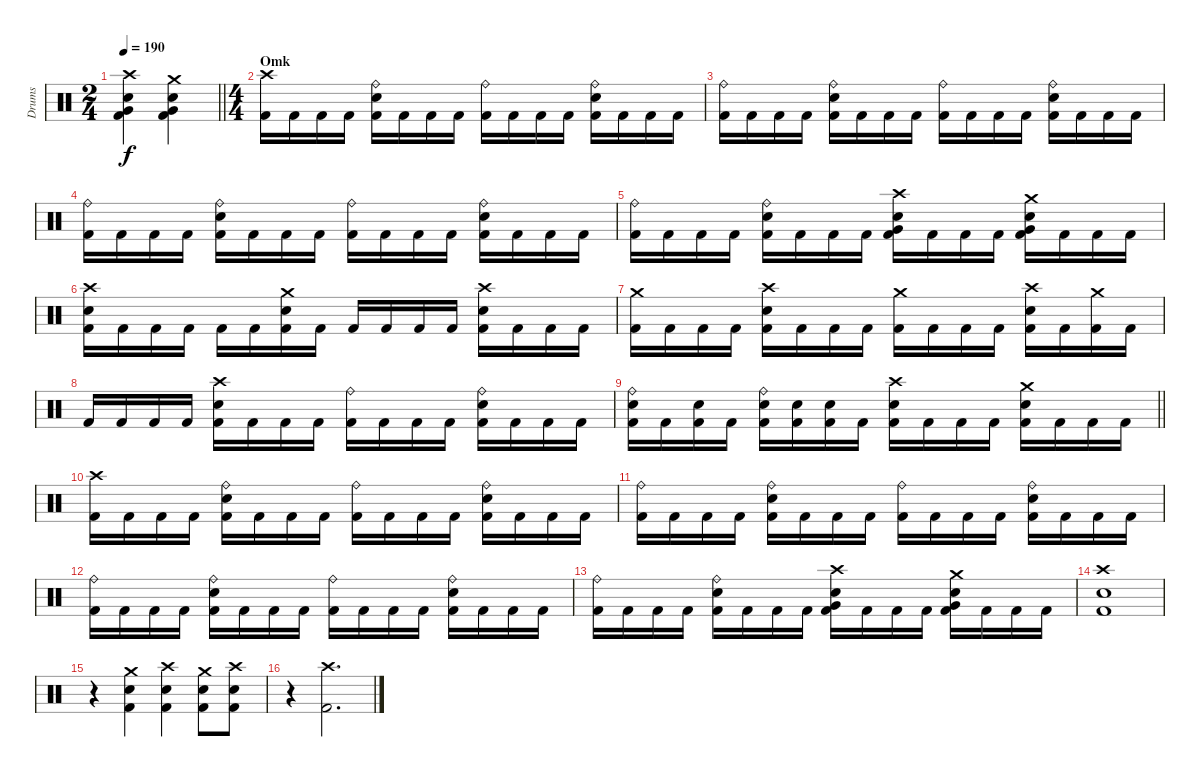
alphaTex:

\track ("Drums" "Drums") {instrument percussion}
\staff {score}
\articulation defaults
\ts (2 4)
\tempo 190
\clef neutral
\barLineRight lightlight
\ks c
("Crash high (hit)" "Very Low Tom (hit)" "Snare (hit) 2" "Kick (hit) 2").4{dy f} ("Crash medium (hit)" "Very Low Tom (hit)" "Snare (hit) 2" "Kick (hit) 2").4 |
\ts (4 4)
\section ("" "Omk")
("Crash high (hit)" "Kick (hit) 2").16 "Kick (hit) 2".16 "Kick (hit) 2".16 "Kick (hit) 2".16 ("Ride (bell)" "Snare (hit) 2" "Kick (hit) 2").16 "Kick (hit) 2".16 "Kick (hit) 2".16 "Kick (hit) 2".16 ("Ride (bell)" "Kick (hit) 2").16 "Kick (hit) 2".16 "Kick (hit) 2".16 "Kick (hit) 2".16 ("Ride (bell)" "Snare (hit) 2" "Kick (hit) 2").16 "Kick (hit) 2".16 "Kick (hit) 2".16 "Kick (hit) 2".16 |
("Ride (bell)" "Kick (hit) 2").16 "Kick (hit) 2".16 "Kick (hit) 2".16 "Kick (hit) 2".16 ("Ride (bell)" "Snare (hit) 2" "Kick (hit) 2").16 "Kick (hit) 2".16 "Kick (hit) 2".16 "Kick (hit) 2".16 ("Ride (bell)" "Kick (hit) 2").16 "Kick (hit) 2".16 "Kick (hit) 2".16 "Kick (hit) 2".16 ("Ride (bell)" "Snare (hit) 2" "Kick (hit) 2").16 "Kick (hit) 2".16 "Kick (hit) 2".16 "Kick (hit) 2".16 |
("Ride (bell)" "Kick (hit) 2").16 "Kick (hit) 2".16 "Kick (hit) 2".16 "Kick (hit) 2".16 ("Ride (bell)" "Snare (hit) 2" "Kick (hit) 2").16 "Kick (hit) 2".16 "Kick (hit) 2".16 "Kick (hit) 2".16 ("Ride (bell)" "Kick (hit) 2").16 "Kick (hit) 2".16 "Kick (hit) 2".16 "Kick (hit) 2".16 ("Ride (bell)" "Snare (hit) 2" "Kick (hit) 2").16 "Kick (hit) 2".16 "Kick (hit) 2".16 "Kick (hit) 2".16 |
("Ride (bell)" "Kick (hit) 2").16 "Kick (hit) 2".16 "Kick (hit) 2".16 "Kick (hit) 2".16 ("Ride (bell)" "Snare (hit) 2" "Kick (hit) 2").16 "Kick (hit) 2".16 "Kick (hit) 2".16 "Kick (hit) 2".16 ("Crash high (hit)" "Very Low Tom (hit)" "Snare (hit) 2" "Kick (hit) 2").16 "Kick (hit) 2".16 "Kick (hit) 2".16 "Kick (hit) 2".16 ("Crash medium (hit)" "Very Low Tom (hit)" "Snare (hit) 2" "Kick (hit) 2").16 "Kick (hit) 2".16 "Kick (hit) 2".16 "Kick (hit) 2".16 |
("Crash high (hit)" "Snare (hit) 2" "Kick (hit) 2").16 "Kick (hit) 2".16 "Kick (hit) 2".16 "Kick (hit) 2".16 "Kick (hit) 2".16 "Kick (hit) 2".16 ("Crash medium (hit)" "Snare (hit) 2" "Kick (hit) 2").16 "Kick (hit) 2".16 "Kick (hit) 2".16 "Kick (hit) 2".16 "Kick (hit) 2".16 "Kick (hit) 2".16 ("Crash high (hit)" "Snare (hit) 2" "Kick (hit) 2").16 "Kick (hit) 2".16 "Kick (hit) 2".16 "Kick (hit) 2".16 |
("Crash medium (hit)" "Kick (hit) 2").16 "Kick (hit) 2".16 "Kick (hit) 2".16 "Kick (hit) 2".16 ("Crash high (hit)" "Snare (hit) 2" "Kick (hit) 2").16 "Kick (hit) 2".16 "Kick (hit) 2".16 "Kick (hit) 2".16 ("Crash medium (hit)" "Kick (hit) 2").16 "Kick (hit) 2".16 "Kick (hit) 2".16 "Kick (hit) 2".16 ("Crash high (hit)" "Snare (hit) 2" "Kick (hit) 2").16 "Kick (hit) 2".16 ("Crash medium (hit)" "Kick (hit) 2").16 "Kick (hit) 2".16 |
"Kick (hit) 2".16 "Kick (hit) 2".16 "Kick (hit) 2".16 "Kick (hit) 2".16 ("Crash high (hit)" "Snare (hit) 2" "Kick (hit) 2").16 "Kick (hit) 2".16 "Kick (hit) 2".16 "Kick (hit) 2".16 ("Ride (bell)" "Kick (hit) 2").16 "Kick (hit) 2".16 "Kick (hit) 2".16 "Kick (hit) 2".16 ("Ride (bell)" "Snare (hit) 2" "Kick (hit) 2").16 "Kick (hit) 2".16 "Kick (hit) 2".16 "Kick (hit) 2".16 |
\barLineRight lightlight
("Ride (bell)" "Snare (hit) 2" "Kick (hit) 2").16 "Kick (hit) 2".16 ("Snare (hit) 2" "Kick (hit) 2").16 "Kick (hit) 2".16 ("Ride (bell)" "Snare (hit) 2" "Kick (hit) 2").16 ("Snare (hit) 2" "Kick (hit) 2").16 ("Snare (hit) 2" "Kick (hit) 2").16 "Kick (hit) 2".16 ("Crash high (hit)" "Snare (hit) 2" "Kick (hit) 2").16 "Kick (hit) 2".16 "Kick (hit) 2".16 "Kick (hit) 2".16 ("Crash medium (hit)" "Snare (hit) 2" "Kick (hit) 2").16 "Kick (hit) 2".16 "Kick (hit) 2".16 "Kick (hit) 2".16 |
("Crash high (hit)" "Kick (hit) 2").16 "Kick (hit) 2".16 "Kick (hit) 2".16 "Kick (hit) 2".16 ("Ride (bell)" "Snare (hit) 2" "Kick (hit) 2").16 "Kick (hit) 2".16 "Kick (hit) 2".16 "Kick (hit) 2".16 ("Ride (bell)" "Kick (hit) 2").16 "Kick (hit) 2".16 "Kick (hit) 2".16 "Kick (hit) 2".16 ("Ride (bell)" "Snare (hit) 2" "Kick (hit) 2").16 "Kick (hit) 2".16 "Kick (hit) 2".16 "Kick (hit) 2".16 |
("Ride (bell)" "Kick (hit) 2").16 "Kick (hit) 2".16 "Kick (hit) 2".16 "Kick (hit) 2".16 ("Ride (bell)" "Snare (hit) 2" "Kick (hit) 2").16 "Kick (hit) 2".16 "Kick (hit) 2".16 "Kick (hit) 2".16 ("Ride (bell)" "Kick (hit) 2").16 "Kick (hit) 2".16 "Kick (hit) 2".16 "Kick (hit) 2".16 ("Ride (bell)" "Snare (hit) 2" "Kick (hit) 2").16 "Kick (hit) 2".16 "Kick (hit) 2".16 "Kick (hit) 2".16 |
("Ride (bell)" "Kick (hit) 2").16 "Kick (hit) 2".16 "Kick (hit) 2".16 "Kick (hit) 2".16 ("Ride (bell)" "Snare (hit) 2" "Kick (hit) 2").16 "Kick (hit) 2".16 "Kick (hit) 2".16 "Kick (hit) 2".16 ("Ride (bell)" "Kick (hit) 2").16 "Kick (hit) 2".16 "Kick (hit) 2".16 "Kick (hit) 2".16 ("Ride (bell)" "Snare (hit) 2" "Kick (hit) 2").16 "Kick (hit) 2".16 "Kick (hit) 2".16 "Kick (hit) 2".16 |
("Ride (bell)" "Kick (hit) 2").16 "Kick (hit) 2".16 "Kick (hit) 2".16 "Kick (hit) 2".16 ("Ride (bell)" "Snare (hit) 2" "Kick (hit) 2").16 "Kick (hit) 2".16 "Kick (hit) 2".16 "Kick (hit) 2".16 ("Crash high (hit)" "Very Low Tom (hit)" "Snare (hit) 2" "Kick (hit) 2").16 "Kick (hit) 2".16 "Kick (hit) 2".16 "Kick (hit) 2".16 ("Crash medium (hit)" "Very Low Tom (hit)" "Snare (hit) 2" "Kick (hit) 2").16 "Kick (hit) 2".16 "Kick (hit) 2".16 "Kick (hit) 2".16 |
("Crash high (hit)" "Snare (hit) 2" "Kick (hit) 2").1 |
r.4 ("Crash medium (hit)" "Snare (hit) 2" "Kick (hit) 2").4 ("Crash high (hit)" "Snare (hit)" "Kick (hit) 2").4 ("Crash medium (hit)" "Snare (hit) 2" "Kick (hit) 2").8 ("Crash high (hit)" "Snare (hit) 2" "Kick (hit) 2").8 |
r.4 ("Crash high (hit)" "Kick (hit) 2").2{d}
